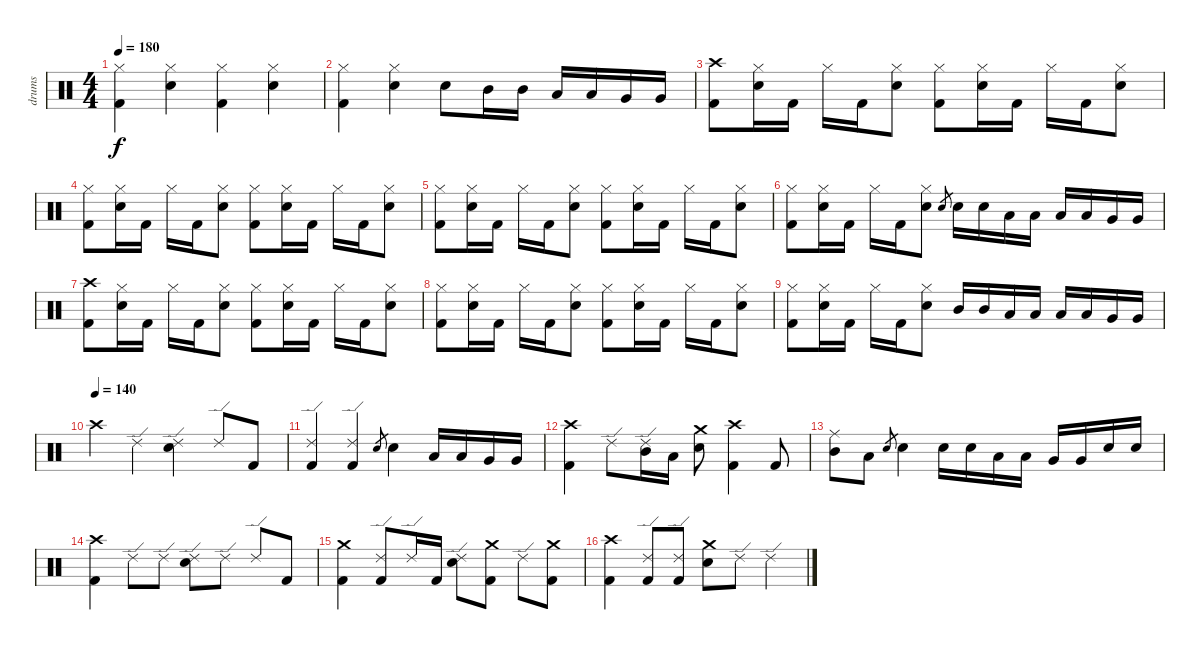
\track ("drums" "drums") {instrument percussion}
\staff {score}
\articulation defaults
\ts (4 4)
\tempo 180
\clef neutral
\ks c
("Hi-Hat (closed)" "Kick (hit) 2").4{dy f} ("Hi-Hat (closed)" "Electric Snare (hit)").4 ("Hi-Hat (closed)" "Kick (hit) 2").4 ("Hi-Hat (closed)" "Electric Snare (hit)").4 |
("Hi-Hat (closed)" "Kick (hit) 2").4 ("Hi-Hat (closed)" "Electric Snare (hit)").4 "Electric Snare (hit)".8 "Mid Tom (hit)".16 "Mid Tom (hit)".16 "Low Tom (hit)".16 "Low Tom (hit)".16 "Very Low Tom (hit)".16 "Very Low Tom (hit)".16 |
("Crash high (hit)" "Kick (hit) 2").8 ("Hi-Hat (closed)" "Electric Snare (hit)").16 "Kick (hit) 2".16 "Hi-Hat (closed)".16 "Kick (hit) 2".16 ("Hi-Hat (closed)" "Electric Snare (hit)").8 ("Hi-Hat (closed)" "Kick (hit) 2").8 ("Hi-Hat (closed)" "Electric Snare (hit)").16 "Kick (hit) 2".16 "Hi-Hat (closed)".16 "Kick (hit) 2".16 ("Hi-Hat (closed)" "Electric Snare (hit)").8 |
("Hi-Hat (closed)" "Kick (hit) 2").8 ("Hi-Hat (closed)" "Electric Snare (hit)").16 "Kick (hit) 2".16 "Hi-Hat (closed)".16 "Kick (hit) 2".16 ("Hi-Hat (closed)" "Electric Snare (hit)").8 ("Hi-Hat (closed)" "Kick (hit) 2").8 ("Hi-Hat (closed)" "Electric Snare (hit)").16 "Kick (hit) 2".16 "Hi-Hat (closed)".16 "Kick (hit) 2".16 ("Hi-Hat (closed)" "Electric Snare (hit)").8 |
("Hi-Hat (closed)" "Kick (hit) 2").8 ("Hi-Hat (closed)" "Electric Snare (hit)").16 "Kick (hit) 2".16 "Hi-Hat (closed)".16 "Kick (hit) 2".16 ("Hi-Hat (closed)" "Electric Snare (hit)").8 ("Hi-Hat (closed)" "Kick (hit) 2").8 ("Hi-Hat (closed)" "Electric Snare (hit)").16 "Kick (hit) 2".16 "Hi-Hat (closed)".16 "Kick (hit) 2".16 ("Hi-Hat (closed)" "Electric Snare (hit)").8 |
("Hi-Hat (closed)" "Kick (hit) 2").8 ("Hi-Hat (closed)" "Electric Snare (hit)").16 "Kick (hit) 2".16 "Hi-Hat (closed)".16 "Kick (hit) 2".16 ("Hi-Hat (closed)" "Electric Snare (hit)").8 "Electric Snare (hit)".8{gr} "Electric Snare (hit)".16 "Electric Snare (hit)".16 "Low Tom (hit)".16 "Low Tom (hit)".16 "Low Tom (hit)".16 "Low Tom (hit)".16 "Very Low Tom (hit)".16 "Very Low Tom (hit)".16 |
("Crash high (hit)" "Kick (hit) 2").8 ("Hi-Hat (closed)" "Electric Snare (hit)").16 "Kick (hit) 2".16 "Hi-Hat (closed)".16 "Kick (hit) 2".16 ("Hi-Hat (closed)" "Electric Snare (hit)").8 ("Hi-Hat (closed)" "Kick (hit) 2").8 ("Hi-Hat (closed)" "Electric Snare (hit)").16 "Kick (hit) 2".16 "Hi-Hat (closed)".16 "Kick (hit) 2".16 ("Hi-Hat (closed)" "Electric Snare (hit)").8 |
("Hi-Hat (closed)" "Kick (hit) 2").8 ("Hi-Hat (closed)" "Electric Snare (hit)").16 "Kick (hit) 2".16 "Hi-Hat (closed)".16 "Kick (hit) 2".16 ("Hi-Hat (closed)" "Electric Snare (hit)").8 ("Hi-Hat (closed)" "Kick (hit) 2").8 ("Hi-Hat (closed)" "Electric Snare (hit)").16 "Kick (hit) 2".16 "Hi-Hat (closed)".16 "Kick (hit) 2".16 ("Hi-Hat (closed)" "Electric Snare (hit)").8 |
("Hi-Hat (closed)" "Kick (hit) 2").8 ("Hi-Hat (closed)" "Electric Snare (hit)").16 "Kick (hit) 2".16 "Hi-Hat (closed)".16 "Kick (hit) 2".16 ("Hi-Hat (closed)" "Electric Snare (hit)").8 "Mid Tom (hit)".16 "Mid Tom (hit)".16 "Low Tom (hit)".16 "Low Tom (hit)".16 "Low Tom (hit)".16 "Low Tom (hit)".16 "Very Low Tom (hit)".16 "Very Low Tom (hit)".16 |
\tempo (140)
"Crash high (hit)".4 "Ride (edge) 2".4 ("Ride (edge) 2" "Electric Snare (hit)").4 "Ride (edge) 2".8 "Kick (hit) 2".8 |
("Ride (edge) 2" "Kick (hit) 2").4 ("Ride (edge) 2" "Kick (hit) 2").4 "Electric Snare (hit)".8{gr} "Electric Snare (hit)".4 "Low Tom (hit)".16 "Low Tom (hit)".16 "Very Low Tom (hit)".16 "Very Low Tom (hit)".16 |
("Crash high (hit)" "Kick (hit) 2").4 "Ride (edge) 2".8 ("Ride (edge) 2" "Mid Tom (hit)").16 "Low Tom (hit)".16 ("Crash medium (hit)" "Electric Snare (hit)").8 ("Crash high (hit)" "Kick (hit) 2").4 "Kick (hit) 2".8 |
("Ride (middle)" "Mid Tom (hit)").8 "Low Tom (hit)".8 "Electric Snare (hit)".8{gr} "Electric Snare (hit)".4 "Electric Snare (hit)".16 "Electric Snare (hit)".16 "Low Tom (hit)".16 "Low Tom (hit)".16 "Very Low Tom (hit)".16 "Very Low Tom (hit)".16 "Electric Snare (hit)".16 "Electric Snare (hit)".16 |
("Crash high (hit)" "Kick (hit) 2").4 "Ride (edge) 2".8 "Ride (edge) 2".8 ("Ride (edge) 2" "Electric Snare (hit)").8 "Ride (edge) 2".8 "Ride (edge) 2".8 "Kick (hit) 2".8 |
("Crash medium (hit)" "Kick (hit) 2").4 ("Ride (edge) 2" "Kick (hit) 2").8 "Ride (edge) 2".16 "Kick (hit) 2".16 ("Ride (edge) 2" "Electric Snare (hit)").8 ("Crash medium (hit)" "Kick (hit) 2").8 "Ride (edge) 2".8 ("Crash medium (hit)" "Kick (hit) 2").8 |
("Crash high (hit)" "Kick (hit) 2").4 ("Ride (edge) 2" "Kick (hit) 2").8 ("Ride (edge) 2" "Kick (hit) 2").8 ("Crash medium (hit)" "Electric Snare (hit)").8 "Ride (edge) 2".8 "Ride (edge) 2".4
